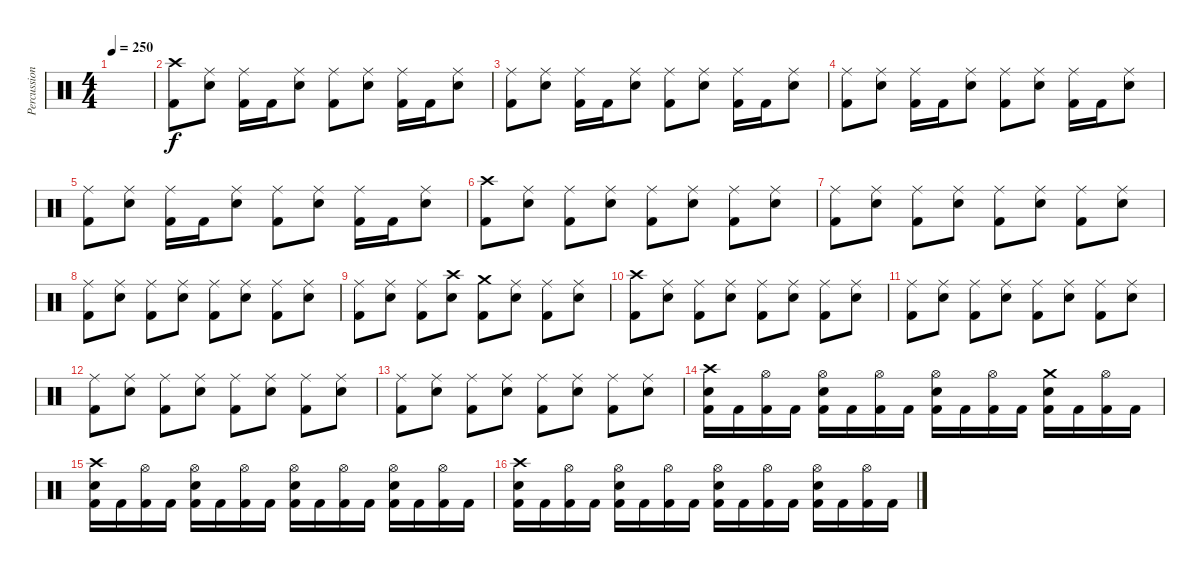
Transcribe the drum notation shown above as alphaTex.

\track ("Percussion" "Percussion") {instrument percussion}
\staff {score}
\articulation defaults
\ts (4 4)
\tempo 250
\clef neutral
\ks c
|
("Crash high (hit)" "Kick (hit) 2").8{volume 16} ("Ride (middle)" "Electric Snare (hit)").8 ("Ride (middle)" "Kick (hit) 2").16 "Kick (hit) 2".16 ("Ride (middle)" "Electric Snare (hit)").8 ("Ride (middle)" "Kick (hit) 2").8 ("Ride (middle)" "Electric Snare (hit)").8 ("Ride (middle)" "Kick (hit) 2").16 "Kick (hit) 2".16 ("Ride (middle)" "Electric Snare (hit)").8 |
("Ride (middle)" "Kick (hit) 2").8 ("Ride (middle)" "Electric Snare (hit)").8 ("Ride (middle)" "Kick (hit) 2").16 "Kick (hit) 2".16 ("Ride (middle)" "Electric Snare (hit)").8 ("Ride (middle)" "Kick (hit) 2").8 ("Ride (middle)" "Electric Snare (hit)").8 ("Ride (middle)" "Kick (hit) 2").16 "Kick (hit) 2".16 ("Ride (middle)" "Electric Snare (hit)").8 |
("Ride (middle)" "Kick (hit) 2").8 ("Ride (middle)" "Electric Snare (hit)").8 ("Ride (middle)" "Kick (hit) 2").16 "Kick (hit) 2".16 ("Ride (middle)" "Electric Snare (hit)").8 ("Ride (middle)" "Kick (hit) 2").8 ("Ride (middle)" "Electric Snare (hit)").8 ("Ride (middle)" "Kick (hit) 2").16 "Kick (hit) 2".16 ("Ride (middle)" "Electric Snare (hit)").8 |
("Ride (middle)" "Kick (hit) 2").8 ("Ride (middle)" "Electric Snare (hit)").8 ("Ride (middle)" "Kick (hit) 2").16 "Kick (hit) 2".16 ("Ride (middle)" "Electric Snare (hit)").8 ("Ride (middle)" "Kick (hit) 2").8 ("Ride (middle)" "Electric Snare (hit)").8 ("Ride (middle)" "Kick (hit) 2").16 "Kick (hit) 2".16 ("Ride (middle)" "Electric Snare (hit)").8 |
("Crash high (hit)" "Kick (hit) 2").8 ("Ride (middle)" "Electric Snare (hit)").8 ("Ride (middle)" "Kick (hit) 2").8 ("Ride (middle)" "Electric Snare (hit)").8 ("Ride (middle)" "Kick (hit) 2").8 ("Ride (middle)" "Electric Snare (hit)").8 ("Ride (middle)" "Kick (hit) 2").8 ("Ride (middle)" "Electric Snare (hit)").8 |
("Ride (middle)" "Kick (hit) 2").8 ("Ride (middle)" "Electric Snare (hit)").8 ("Ride (middle)" "Kick (hit) 2").8 ("Ride (middle)" "Electric Snare (hit)").8 ("Ride (middle)" "Kick (hit) 2").8 ("Ride (middle)" "Electric Snare (hit)").8 ("Ride (middle)" "Kick (hit) 2").8 ("Ride (middle)" "Electric Snare (hit)").8 |
("Ride (middle)" "Kick (hit) 2").8 ("Ride (middle)" "Electric Snare (hit)").8 ("Ride (middle)" "Kick (hit) 2").8 ("Ride (middle)" "Electric Snare (hit)").8 ("Ride (middle)" "Kick (hit) 2").8 ("Ride (middle)" "Electric Snare (hit)").8 ("Ride (middle)" "Kick (hit) 2").8 ("Ride (middle)" "Electric Snare (hit)").8 |
("Ride (middle)" "Kick (hit) 2").8 ("Ride (middle)" "Electric Snare (hit)").8 ("Ride (middle)" "Kick (hit) 2").8 ("Crash high (hit)" "Electric Snare (hit)").8 ("Crash medium (hit)" "Kick (hit) 2").8 ("Ride (middle)" "Electric Snare (hit)").8 ("Ride (middle)" "Kick (hit) 2").8 ("Ride (middle)" "Electric Snare (hit)").8 |
("Crash high (hit)" "Kick (hit) 2").8 ("Ride (middle)" "Electric Snare (hit)").8 ("Ride (middle)" "Kick (hit) 2").8 ("Ride (middle)" "Electric Snare (hit)").8 ("Ride (middle)" "Kick (hit) 2").8 ("Ride (middle)" "Electric Snare (hit)").8 ("Ride (middle)" "Kick (hit) 2").8 ("Ride (middle)" "Electric Snare (hit)").8 |
("Ride (middle)" "Kick (hit) 2").8 ("Ride (middle)" "Electric Snare (hit)").8 ("Ride (middle)" "Kick (hit) 2").8 ("Ride (middle)" "Electric Snare (hit)").8 ("Ride (middle)" "Kick (hit) 2").8 ("Ride (middle)" "Electric Snare (hit)").8 ("Ride (middle)" "Kick (hit) 2").8 ("Ride (middle)" "Electric Snare (hit)").8 |
("Ride (middle)" "Kick (hit) 2").8 ("Ride (middle)" "Electric Snare (hit)").8 ("Ride (middle)" "Kick (hit) 2").8 ("Ride (middle)" "Electric Snare (hit)").8 ("Ride (middle)" "Kick (hit) 2").8 ("Ride (middle)" "Electric Snare (hit)").8 ("Ride (middle)" "Kick (hit) 2").8 ("Ride (middle)" "Electric Snare (hit)").8 |
("Ride (middle)" "Kick (hit) 2").8 ("Ride (middle)" "Electric Snare (hit)").8 ("Ride (middle)" "Kick (hit) 2").8 ("Ride (middle)" "Electric Snare (hit)").8 ("Ride (middle)" "Kick (hit) 2").8 ("Ride (middle)" "Electric Snare (hit)").8 ("Ride (middle)" "Kick (hit) 2").8 ("Ride (middle)" "Electric Snare (hit)").8 |
("Crash high (hit)" "Kick (hit) 2" "Electric Snare (hit)").16 "Kick (hit) 2".16 ("Hi-Hat (open)" "Kick (hit) 2").16 "Kick (hit) 2".16 ("Hi-Hat (open)" "Kick (hit) 2" "Electric Snare (hit)").16 "Kick (hit) 2".16 ("Hi-Hat (open)" "Kick (hit) 2").16 "Kick (hit) 2".16 ("Hi-Hat (open)" "Kick (hit) 2" "Electric Snare (hit)").16 "Kick (hit) 2".16 ("Hi-Hat (open)" "Kick (hit) 2").16 "Kick (hit) 2".16 ("Crash medium (hit)" "Kick (hit) 2" "Electric Snare (hit)").16 "Kick (hit) 2".16 ("Hi-Hat (open)" "Kick (hit) 2").16 "Kick (hit) 2".16 |
("Crash high (hit)" "Kick (hit) 2" "Electric Snare (hit)").16 "Kick (hit) 2".16 ("Hi-Hat (open)" "Kick (hit) 2").16 "Kick (hit) 2".16 ("Hi-Hat (open)" "Kick (hit) 2" "Electric Snare (hit)").16 "Kick (hit) 2".16 ("Hi-Hat (open)" "Kick (hit) 2").16 "Kick (hit) 2".16 ("Hi-Hat (open)" "Kick (hit) 2" "Electric Snare (hit)").16 "Kick (hit) 2".16 ("Hi-Hat (open)" "Kick (hit) 2").16 "Kick (hit) 2".16 ("Hi-Hat (open)" "Kick (hit) 2" "Electric Snare (hit)").16 "Kick (hit) 2".16 ("Hi-Hat (open)" "Kick (hit) 2").16 "Kick (hit) 2".16 |
("Crash high (hit)" "Kick (hit) 2" "Electric Snare (hit)").16 "Kick (hit) 2".16 ("Hi-Hat (open)" "Kick (hit) 2").16 "Kick (hit) 2".16 ("Hi-Hat (open)" "Kick (hit) 2" "Electric Snare (hit)").16 "Kick (hit) 2".16 ("Hi-Hat (open)" "Kick (hit) 2").16 "Kick (hit) 2".16 ("Hi-Hat (open)" "Kick (hit) 2" "Electric Snare (hit)").16 "Kick (hit) 2".16 ("Hi-Hat (open)" "Kick (hit) 2").16 "Kick (hit) 2".16 ("Hi-Hat (open)" "Kick (hit) 2" "Electric Snare (hit)").16 "Kick (hit) 2".16 ("Hi-Hat (open)" "Kick (hit) 2").16 "Kick (hit) 2".16
